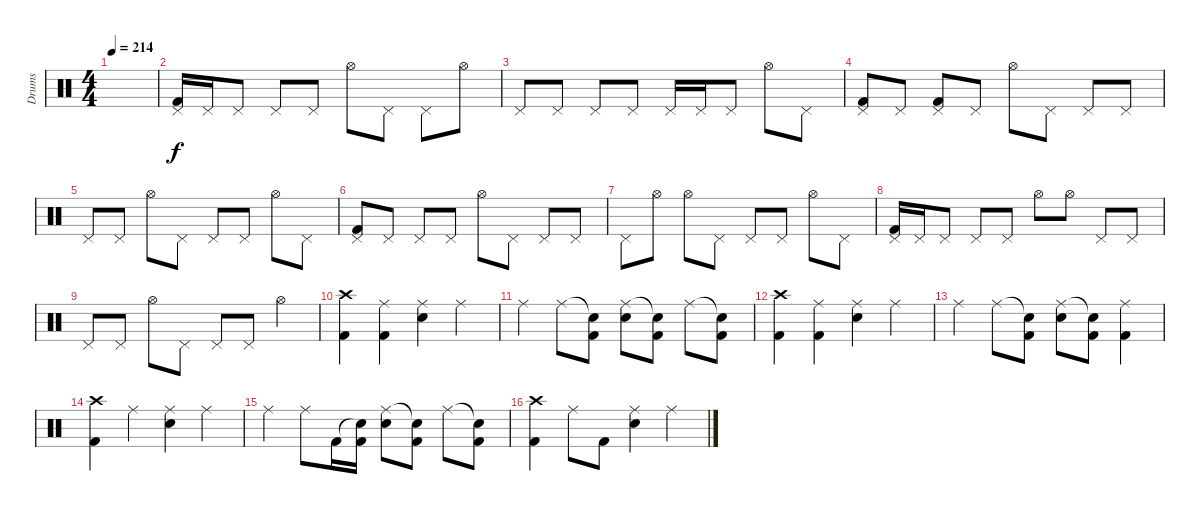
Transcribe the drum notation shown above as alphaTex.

\track ("Drums" "Drums") {instrument percussion}
\staff {score}
\articulation defaults
\ts (4 4)
\tempo 214
\clef neutral
\ks c
|
("Pedal Hi-Hat (hit)" "Kick (hit) 2").16 "Pedal Hi-Hat (hit)".16 "Pedal Hi-Hat (hit)".8 "Pedal Hi-Hat (hit)".8 "Pedal Hi-Hat (hit)".8 "Hi-Hat (open)".8 "Pedal Hi-Hat (hit)".8 "Pedal Hi-Hat (hit)".8 "Hi-Hat (open)".8 |
"Pedal Hi-Hat (hit)".8 "Pedal Hi-Hat (hit)".8 "Pedal Hi-Hat (hit)".8 "Pedal Hi-Hat (hit)".8 "Pedal Hi-Hat (hit)".16 "Pedal Hi-Hat (hit)".16 "Pedal Hi-Hat (hit)".8 "Hi-Hat (open)".8 "Pedal Hi-Hat (hit)".8 |
("Pedal Hi-Hat (hit)" "Kick (hit) 2").8 "Pedal Hi-Hat (hit)".8 ("Pedal Hi-Hat (hit)" "Kick (hit) 2").8 "Pedal Hi-Hat (hit)".8 "Hi-Hat (open)".8 "Pedal Hi-Hat (hit)".8 "Pedal Hi-Hat (hit)".8 "Pedal Hi-Hat (hit)".8 |
"Pedal Hi-Hat (hit)".8 "Pedal Hi-Hat (hit)".8 "Hi-Hat (open)".8 "Pedal Hi-Hat (hit)".8 "Pedal Hi-Hat (hit)".8 "Pedal Hi-Hat (hit)".8 "Hi-Hat (open)".8 "Pedal Hi-Hat (hit)".8 |
("Pedal Hi-Hat (hit)" "Kick (hit) 2").8 "Pedal Hi-Hat (hit)".8 "Pedal Hi-Hat (hit)".8 "Pedal Hi-Hat (hit)".8 "Hi-Hat (open)".8 "Pedal Hi-Hat (hit)".8 "Pedal Hi-Hat (hit)".8 "Pedal Hi-Hat (hit)".8 |
"Pedal Hi-Hat (hit)".8 "Hi-Hat (open)".8 "Hi-Hat (open)".8 "Pedal Hi-Hat (hit)".8 "Pedal Hi-Hat (hit)".8 "Pedal Hi-Hat (hit)".8 "Hi-Hat (open)".8 "Pedal Hi-Hat (hit)".8 |
("Pedal Hi-Hat (hit)" "Kick (hit) 2").16 "Pedal Hi-Hat (hit)".16 "Pedal Hi-Hat (hit)".8 "Pedal Hi-Hat (hit)".8 "Pedal Hi-Hat (hit)".8 "Hi-Hat (open)".8 "Hi-Hat (open)".8 "Pedal Hi-Hat (hit)".8 "Pedal Hi-Hat (hit)".8 |
"Pedal Hi-Hat (hit)".8 "Pedal Hi-Hat (hit)".8 "Hi-Hat (open)".8 "Pedal Hi-Hat (hit)".8 "Pedal Hi-Hat (hit)".8 "Pedal Hi-Hat (hit)".8 "Hi-Hat (open)".4 |
("Crash high (hit)" "Kick (hit) 2").4 ("Ride (middle)" "Kick (hit) 2").4 ("Ride (middle)" "Snare (hit) 2").4 "Ride (middle)".4 |
"Ride (middle)".4 "Ride (middle)".8 ("Snare (hit)"{t} "Kick (hit) 2").8 ("Ride (middle)" "Snare (hit) 2").8 ("Snare (hit)"{t} "Kick (hit) 2").8 "Ride (middle)".8 ("Snare (hit)"{t} "Kick (hit) 2").8 |
("Crash high (hit)" "Kick (hit) 2").4 ("Ride (middle)" "Kick (hit) 2").4 ("Ride (middle)" "Snare (hit) 2").4 "Ride (middle)".4 |
"Ride (middle)".4 "Ride (middle)".8 ("Snare (hit)"{t} "Kick (hit) 2").8 ("Ride (middle)" "Snare (hit) 2").8 ("Snare (hit)"{t} "Kick (hit) 2").8 ("Ride (middle)" "Kick (hit) 2").4 |
("Crash high (hit)" "Kick (hit) 2").4 "Ride (middle)".4 ("Ride (middle)" "Snare (hit) 2").4 "Ride (middle)".4 |
"Ride (middle)".4 "Ride (middle)".8 "Kick (hit) 2".16 ("Snare (hit)"{t} "Kick (hit) 2").16 ("Ride (middle)" "Snare (hit) 2").8 ("Snare (hit)"{t} "Kick (hit) 2").8 "Ride (middle)".8 ("Snare (hit)"{t} "Kick (hit) 2").8 |
("Crash high (hit)" "Kick (hit) 2").4 "Ride (middle)".8 "Kick (hit) 2".8 ("Ride (middle)" "Snare (hit) 2").4 "Ride (middle)".4
